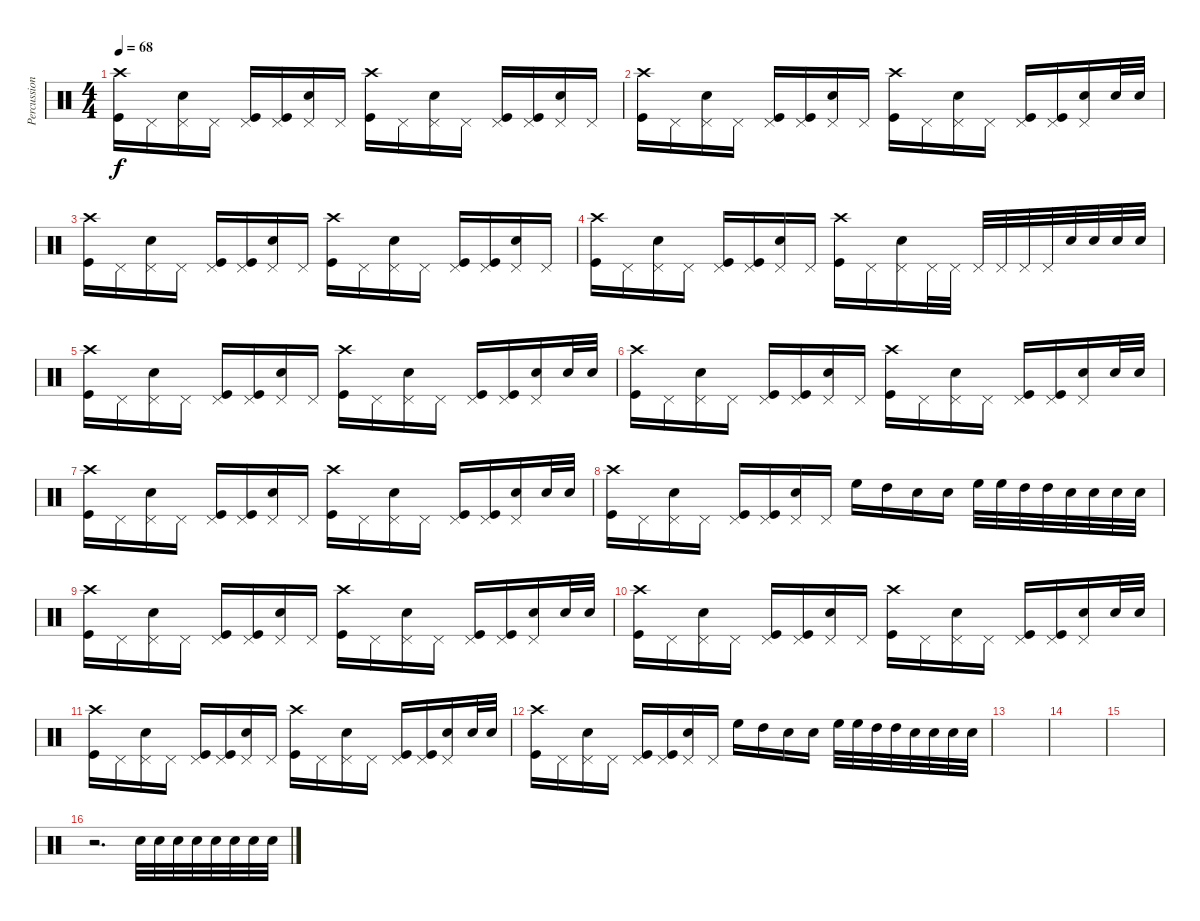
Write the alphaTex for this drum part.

\track ("Percussion" "Percussion") {instrument percussion}
\staff {score}
\articulation defaults
\ts (4 4)
\tempo 68
\clef neutral
\ks c
("Crash high (hit)" "Kick (hit)").16{dy f} "Pedal Hi-Hat (hit)".16 ("Pedal Hi-Hat (hit)" "Electric Snare (hit)").16 "Pedal Hi-Hat (hit)".16 ("Pedal Hi-Hat (hit)" "Kick (hit)").16 ("Pedal Hi-Hat (hit)" "Kick (hit)").16 ("Pedal Hi-Hat (hit)" "Electric Snare (hit)").16 "Pedal Hi-Hat (hit)".16 ("Crash high (hit)" "Kick (hit)").16 "Pedal Hi-Hat (hit)".16 ("Pedal Hi-Hat (hit)" "Electric Snare (hit)").16 "Pedal Hi-Hat (hit)".16 ("Pedal Hi-Hat (hit)" "Kick (hit)").16 ("Pedal Hi-Hat (hit)" "Kick (hit)").16 ("Pedal Hi-Hat (hit)" "Electric Snare (hit)").16 "Pedal Hi-Hat (hit)".16 |
("Crash high (hit)" "Kick (hit)").16 "Pedal Hi-Hat (hit)".16 ("Pedal Hi-Hat (hit)" "Electric Snare (hit)").16 "Pedal Hi-Hat (hit)".16 ("Pedal Hi-Hat (hit)" "Kick (hit)").16 ("Pedal Hi-Hat (hit)" "Kick (hit)").16 ("Pedal Hi-Hat (hit)" "Electric Snare (hit)").16 "Pedal Hi-Hat (hit)".16 ("Crash high (hit)" "Kick (hit)").16 "Pedal Hi-Hat (hit)".16 ("Pedal Hi-Hat (hit)" "Electric Snare (hit)").16 "Pedal Hi-Hat (hit)".16 ("Pedal Hi-Hat (hit)" "Kick (hit)").16 ("Pedal Hi-Hat (hit)" "Kick (hit)").16 ("Pedal Hi-Hat (hit)" "Electric Snare (hit)").16 "Electric Snare (hit)".32 "Electric Snare (hit)".32 |
("Crash high (hit)" "Kick (hit)").16 "Pedal Hi-Hat (hit)".16 ("Pedal Hi-Hat (hit)" "Electric Snare (hit)").16 "Pedal Hi-Hat (hit)".16 ("Pedal Hi-Hat (hit)" "Kick (hit)").16 ("Pedal Hi-Hat (hit)" "Kick (hit)").16 ("Pedal Hi-Hat (hit)" "Electric Snare (hit)").16 "Pedal Hi-Hat (hit)".16 ("Crash high (hit)" "Kick (hit)").16 "Pedal Hi-Hat (hit)".16 ("Pedal Hi-Hat (hit)" "Electric Snare (hit)").16 "Pedal Hi-Hat (hit)".16 ("Pedal Hi-Hat (hit)" "Kick (hit)").16 ("Pedal Hi-Hat (hit)" "Kick (hit)").16 ("Pedal Hi-Hat (hit)" "Electric Snare (hit)").16 "Pedal Hi-Hat (hit)".16 |
("Crash high (hit)" "Kick (hit)").16 "Pedal Hi-Hat (hit)".16 ("Pedal Hi-Hat (hit)" "Electric Snare (hit)").16 "Pedal Hi-Hat (hit)".16 ("Pedal Hi-Hat (hit)" "Kick (hit)").16 ("Pedal Hi-Hat (hit)" "Kick (hit)").16 ("Pedal Hi-Hat (hit)" "Electric Snare (hit)").16 "Pedal Hi-Hat (hit)".16 ("Crash high (hit)" "Kick (hit)").16 "Pedal Hi-Hat (hit)".16 ("Pedal Hi-Hat (hit)" "Electric Snare (hit)").16 "Pedal Hi-Hat (hit)".32 "Pedal Hi-Hat (hit)".32 "Pedal Hi-Hat (hit)".32 "Pedal Hi-Hat (hit)".32 "Pedal Hi-Hat (hit)".32 "Pedal Hi-Hat (hit)".32 "Electric Snare (hit)".32 "Electric Snare (hit)".32 "Electric Snare (hit)".32 "Electric Snare (hit)".32 |
("Crash high (hit)" "Kick (hit)").16 "Pedal Hi-Hat (hit)".16 ("Pedal Hi-Hat (hit)" "Electric Snare (hit)").16 "Pedal Hi-Hat (hit)".16 ("Pedal Hi-Hat (hit)" "Kick (hit)").16 ("Pedal Hi-Hat (hit)" "Kick (hit)").16 ("Pedal Hi-Hat (hit)" "Electric Snare (hit)").16 "Pedal Hi-Hat (hit)".16 ("Crash high (hit)" "Kick (hit)").16 "Pedal Hi-Hat (hit)".16 ("Pedal Hi-Hat (hit)" "Electric Snare (hit)").16 "Pedal Hi-Hat (hit)".16 ("Pedal Hi-Hat (hit)" "Kick (hit)").16 ("Pedal Hi-Hat (hit)" "Kick (hit)").16 ("Pedal Hi-Hat (hit)" "Electric Snare (hit)").16 "Electric Snare (hit)".32 "Electric Snare (hit)".32 |
("Crash high (hit)" "Kick (hit)").16 "Pedal Hi-Hat (hit)".16 ("Pedal Hi-Hat (hit)" "Electric Snare (hit)").16 "Pedal Hi-Hat (hit)".16 ("Pedal Hi-Hat (hit)" "Kick (hit)").16 ("Pedal Hi-Hat (hit)" "Kick (hit)").16 ("Pedal Hi-Hat (hit)" "Electric Snare (hit)").16 "Pedal Hi-Hat (hit)".16 ("Crash high (hit)" "Kick (hit)").16 "Pedal Hi-Hat (hit)".16 ("Pedal Hi-Hat (hit)" "Electric Snare (hit)").16 "Pedal Hi-Hat (hit)".16 ("Pedal Hi-Hat (hit)" "Kick (hit)").16 ("Pedal Hi-Hat (hit)" "Kick (hit)").16 ("Pedal Hi-Hat (hit)" "Electric Snare (hit)").16 "Electric Snare (hit)".32 "Electric Snare (hit)".32 |
("Crash high (hit)" "Kick (hit)").16 "Pedal Hi-Hat (hit)".16 ("Pedal Hi-Hat (hit)" "Electric Snare (hit)").16 "Pedal Hi-Hat (hit)".16 ("Pedal Hi-Hat (hit)" "Kick (hit)").16 ("Pedal Hi-Hat (hit)" "Kick (hit)").16 ("Pedal Hi-Hat (hit)" "Electric Snare (hit)").16 "Pedal Hi-Hat (hit)".16 ("Crash high (hit)" "Kick (hit)").16 "Pedal Hi-Hat (hit)".16 ("Pedal Hi-Hat (hit)" "Electric Snare (hit)").16 "Pedal Hi-Hat (hit)".16 ("Pedal Hi-Hat (hit)" "Kick (hit)").16 ("Pedal Hi-Hat (hit)" "Kick (hit)").16 ("Pedal Hi-Hat (hit)" "Electric Snare (hit)").16 "Electric Snare (hit)".32 "Electric Snare (hit)".32 |
("Crash high (hit)" "Kick (hit)").16 "Pedal Hi-Hat (hit)".16 ("Pedal Hi-Hat (hit)" "Electric Snare (hit)").16 "Pedal Hi-Hat (hit)".16 ("Pedal Hi-Hat (hit)" "Kick (hit)").16 ("Pedal Hi-Hat (hit)" "Kick (hit)").16 ("Pedal Hi-Hat (hit)" "Electric Snare (hit)").16 "Pedal Hi-Hat (hit)".16 "High Floor Tom (hit)".16 "High Tom (hit)".16 "Electric Snare (hit)".16 "Electric Snare (hit)".16 "High Floor Tom (hit)".32 "High Floor Tom (hit)".32 "High Tom (hit)".32 "High Tom (hit)".32 "Electric Snare (hit)".32 "Electric Snare (hit)".32 "Electric Snare (hit)".32 "Electric Snare (hit)".32 |
("Crash high (hit)" "Kick (hit)").16 "Pedal Hi-Hat (hit)".16 ("Pedal Hi-Hat (hit)" "Electric Snare (hit)").16 "Pedal Hi-Hat (hit)".16 ("Pedal Hi-Hat (hit)" "Kick (hit)").16 ("Pedal Hi-Hat (hit)" "Kick (hit)").16 ("Pedal Hi-Hat (hit)" "Electric Snare (hit)").16 "Pedal Hi-Hat (hit)".16 ("Crash high (hit)" "Kick (hit)").16 "Pedal Hi-Hat (hit)".16 ("Pedal Hi-Hat (hit)" "Electric Snare (hit)").16 "Pedal Hi-Hat (hit)".16 ("Pedal Hi-Hat (hit)" "Kick (hit)").16 ("Pedal Hi-Hat (hit)" "Kick (hit)").16 ("Pedal Hi-Hat (hit)" "Electric Snare (hit)").16 "Electric Snare (hit)".32 "Electric Snare (hit)".32 |
("Crash high (hit)" "Kick (hit)").16 "Pedal Hi-Hat (hit)".16 ("Pedal Hi-Hat (hit)" "Electric Snare (hit)").16 "Pedal Hi-Hat (hit)".16 ("Pedal Hi-Hat (hit)" "Kick (hit)").16 ("Pedal Hi-Hat (hit)" "Kick (hit)").16 ("Pedal Hi-Hat (hit)" "Electric Snare (hit)").16 "Pedal Hi-Hat (hit)".16 ("Crash high (hit)" "Kick (hit)").16 "Pedal Hi-Hat (hit)".16 ("Pedal Hi-Hat (hit)" "Electric Snare (hit)").16 "Pedal Hi-Hat (hit)".16 ("Pedal Hi-Hat (hit)" "Kick (hit)").16 ("Pedal Hi-Hat (hit)" "Kick (hit)").16 ("Pedal Hi-Hat (hit)" "Electric Snare (hit)").16 "Electric Snare (hit)".32 "Electric Snare (hit)".32 |
("Crash high (hit)" "Kick (hit)").16 "Pedal Hi-Hat (hit)".16 ("Pedal Hi-Hat (hit)" "Electric Snare (hit)").16 "Pedal Hi-Hat (hit)".16 ("Pedal Hi-Hat (hit)" "Kick (hit)").16 ("Pedal Hi-Hat (hit)" "Kick (hit)").16 ("Pedal Hi-Hat (hit)" "Electric Snare (hit)").16 "Pedal Hi-Hat (hit)".16 ("Crash high (hit)" "Kick (hit)").16 "Pedal Hi-Hat (hit)".16 ("Pedal Hi-Hat (hit)" "Electric Snare (hit)").16 "Pedal Hi-Hat (hit)".16 ("Pedal Hi-Hat (hit)" "Kick (hit)").16 ("Pedal Hi-Hat (hit)" "Kick (hit)").16 ("Pedal Hi-Hat (hit)" "Electric Snare (hit)").16 "Electric Snare (hit)".32 "Electric Snare (hit)".32 |
("Crash high (hit)" "Kick (hit)").16 "Pedal Hi-Hat (hit)".16 ("Pedal Hi-Hat (hit)" "Electric Snare (hit)").16 "Pedal Hi-Hat (hit)".16 ("Pedal Hi-Hat (hit)" "Kick (hit)").16 ("Pedal Hi-Hat (hit)" "Kick (hit)").16 ("Pedal Hi-Hat (hit)" "Electric Snare (hit)").16 "Pedal Hi-Hat (hit)".16 "High Floor Tom (hit)".16 "High Tom (hit)".16 "Electric Snare (hit)".16 "Electric Snare (hit)".16 "High Floor Tom (hit)".32 "High Floor Tom (hit)".32 "High Tom (hit)".32 "High Tom (hit)".32 "Electric Snare (hit)".32 "Electric Snare (hit)".32 "Electric Snare (hit)".32 "Electric Snare (hit)".32 |
|
|
|
r.2{d} "Electric Snare (hit)".32 "Electric Snare (hit)".32 "Electric Snare (hit)".32 "Electric Snare (hit)".32 "Electric Snare (hit)".32 "Electric Snare (hit)".32 "Electric Snare (hit)".32 "Electric Snare (hit)".32
